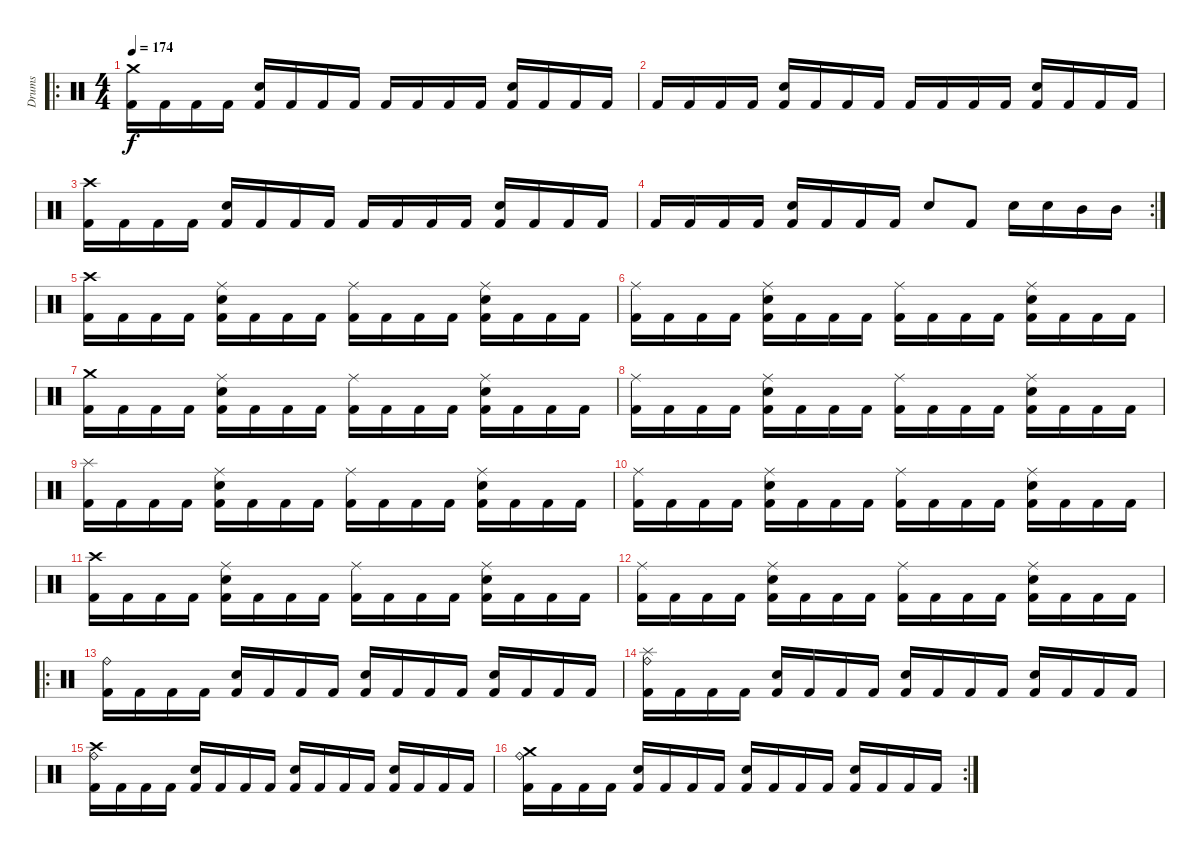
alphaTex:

\track ("Drums" "Drums") {instrument percussion}
\staff {score}
\articulation defaults
\ro
\ts (4 4)
\tempo 174
\clef neutral
\ks c
("Crash medium (hit)" "Kick (hit) 2").16{dy f} "Kick (hit) 2".16 "Kick (hit) 2".16 "Kick (hit) 2".16 ("Electric Snare (hit)" "Kick (hit) 2").16 "Kick (hit) 2".16 "Kick (hit) 2".16 "Kick (hit) 2".16 "Kick (hit) 2".16 "Kick (hit) 2".16 "Kick (hit) 2".16 "Kick (hit) 2".16 ("Electric Snare (hit)" "Kick (hit) 2").16 "Kick (hit) 2".16 "Kick (hit) 2".16 "Kick (hit) 2".16 |
"Kick (hit) 2".16 "Kick (hit) 2".16 "Kick (hit) 2".16 "Kick (hit) 2".16 ("Electric Snare (hit)" "Kick (hit) 2").16 "Kick (hit) 2".16 "Kick (hit) 2".16 "Kick (hit) 2".16 "Kick (hit) 2".16 "Kick (hit) 2".16 "Kick (hit) 2".16 "Kick (hit) 2".16 ("Electric Snare (hit)" "Kick (hit) 2").16 "Kick (hit) 2".16 "Kick (hit) 2".16 "Kick (hit) 2".16 |
("Crash high (hit)" "Kick (hit) 2").16 "Kick (hit) 2".16 "Kick (hit) 2".16 "Kick (hit) 2".16 ("Electric Snare (hit)" "Kick (hit) 2").16 "Kick (hit) 2".16 "Kick (hit) 2".16 "Kick (hit) 2".16 "Kick (hit) 2".16 "Kick (hit) 2".16 "Kick (hit) 2".16 "Kick (hit) 2".16 ("Electric Snare (hit)" "Kick (hit) 2").16 "Kick (hit) 2".16 "Kick (hit) 2".16 "Kick (hit) 2".16 |
\rc 2 "Kick (hit) 2".16 "Kick (hit) 2".16 "Kick (hit) 2".16 "Kick (hit) 2".16
("Electric Snare (hit)" "Kick (hit) 2").16 "Kick (hit) 2".16 "Kick (hit) 2".16 "Kick (hit) 2".16 "Electric Snare (hit)".8 "Kick (hit) 2".8 "Electric Snare (hit)".16 "Electric Snare (hit)".16 "Mid Tom (hit)".16 "Mid Tom (hit)".16 |
("Crash high (hit)" "Kick (hit) 2").16 "Kick (hit) 2".16 "Kick (hit) 2".16 "Kick (hit) 2".16 ("Electric Snare (hit)" "Ride (middle)" "Kick (hit) 2").16 "Kick (hit) 2".16 "Kick (hit) 2".16 "Kick (hit) 2".16 ("Ride (middle)" "Kick (hit) 2").16 "Kick (hit) 2".16 "Kick (hit) 2".16 "Kick (hit) 2".16 ("Electric Snare (hit)" "Ride (middle)" "Kick (hit) 2").16 "Kick (hit) 2".16 "Kick (hit) 2".16 "Kick (hit) 2".16 |
("Ride (middle)" "Kick (hit) 2").16 "Kick (hit) 2".16 "Kick (hit) 2".16 "Kick (hit) 2".16 ("Electric Snare (hit)" "Ride (middle)" "Kick (hit) 2").16 "Kick (hit) 2".16 "Kick (hit) 2".16 "Kick (hit) 2".16 ("Ride (middle)" "Kick (hit) 2").16 "Kick (hit) 2".16 "Kick (hit) 2".16 "Kick (hit) 2".16 ("Electric Snare (hit)" "Ride (middle)" "Kick (hit) 2").16 "Kick (hit) 2".16 "Kick (hit) 2".16 "Kick (hit) 2".16 |
("Crash medium (hit)" "Kick (hit) 2").16 "Kick (hit) 2".16 "Kick (hit) 2".16 "Kick (hit) 2".16 ("Electric Snare (hit)" "Ride (middle)" "Kick (hit) 2").16 "Kick (hit) 2".16 "Kick (hit) 2".16 "Kick (hit) 2".16 ("Ride (middle)" "Kick (hit) 2").16 "Kick (hit) 2".16 "Kick (hit) 2".16 "Kick (hit) 2".16 ("Electric Snare (hit)" "Ride (middle)" "Kick (hit) 2").16 "Kick (hit) 2".16 "Kick (hit) 2".16 "Kick (hit) 2".16 |
("Ride (middle)" "Kick (hit) 2").16 "Kick (hit) 2".16 "Kick (hit) 2".16 "Kick (hit) 2".16 ("Electric Snare (hit)" "Ride (middle)" "Kick (hit) 2").16 "Kick (hit) 2".16 "Kick (hit) 2".16 "Kick (hit) 2".16 ("Ride (middle)" "Kick (hit) 2").16 "Kick (hit) 2".16 "Kick (hit) 2".16 "Kick (hit) 2".16 ("Electric Snare (hit)" "Ride (middle)" "Kick (hit) 2").16 "Kick (hit) 2".16 "Kick (hit) 2".16 "Kick (hit) 2".16 |
("Splash (hit)" "Kick (hit) 2").16 "Kick (hit) 2".16 "Kick (hit) 2".16 "Kick (hit) 2".16 ("Electric Snare (hit)" "Ride (middle)" "Kick (hit) 2").16 "Kick (hit) 2".16 "Kick (hit) 2".16 "Kick (hit) 2".16 ("Ride (middle)" "Kick (hit) 2").16 "Kick (hit) 2".16 "Kick (hit) 2".16 "Kick (hit) 2".16 ("Electric Snare (hit)" "Ride (middle)" "Kick (hit) 2").16 "Kick (hit) 2".16 "Kick (hit) 2".16 "Kick (hit) 2".16 |
("Ride (middle)" "Kick (hit) 2").16 "Kick (hit) 2".16 "Kick (hit) 2".16 "Kick (hit) 2".16 ("Electric Snare (hit)" "Ride (middle)" "Kick (hit) 2").16 "Kick (hit) 2".16 "Kick (hit) 2".16 "Kick (hit) 2".16 ("Ride (middle)" "Kick (hit) 2").16 "Kick (hit) 2".16 "Kick (hit) 2".16 "Kick (hit) 2".16 ("Electric Snare (hit)" "Ride (middle)" "Kick (hit) 2").16 "Kick (hit) 2".16 "Kick (hit) 2".16 "Kick (hit) 2".16 |
("Crash high (hit)" "Kick (hit) 2").16 "Kick (hit) 2".16 "Kick (hit) 2".16 "Kick (hit) 2".16 ("Electric Snare (hit)" "Ride (middle)" "Kick (hit) 2").16 "Kick (hit) 2".16 "Kick (hit) 2".16 "Kick (hit) 2".16 ("Ride (middle)" "Kick (hit) 2").16 "Kick (hit) 2".16 "Kick (hit) 2".16 "Kick (hit) 2".16 ("Electric Snare (hit)" "Ride (middle)" "Kick (hit) 2").16 "Kick (hit) 2".16 "Kick (hit) 2".16 "Kick (hit) 2".16 |
("Ride (middle)" "Kick (hit) 2").16 "Kick (hit) 2".16 "Kick (hit) 2".16 "Kick (hit) 2".16 ("Electric Snare (hit)" "Ride (middle)" "Kick (hit) 2").16 "Kick (hit) 2".16 "Kick (hit) 2".16 "Kick (hit) 2".16 ("Ride (middle)" "Kick (hit) 2").16 "Kick (hit) 2".16 "Kick (hit) 2".16 "Kick (hit) 2".16 ("Electric Snare (hit)" "Ride (middle)" "Kick (hit) 2").16 "Kick (hit) 2".16 "Kick (hit) 2".16 "Kick (hit) 2".16 |
\ro
("Ride (bell)" "Kick (hit) 2").16 "Kick (hit) 2".16 "Kick (hit) 2".16 "Kick (hit) 2".16 ("Electric Snare (hit)" "Kick (hit) 2").16 "Kick (hit) 2".16 "Kick (hit) 2".16 "Kick (hit) 2".16 ("Electric Snare (hit)" "Kick (hit) 2").16 "Kick (hit) 2".16 "Kick (hit) 2".16 "Kick (hit) 2".16 ("Electric Snare (hit)" "Kick (hit) 2").16 "Kick (hit) 2".16 "Kick (hit) 2".16 "Kick (hit) 2".16 |
("Ride (bell)" "Splash (hit)" "Kick (hit) 2").16 "Kick (hit) 2".16 "Kick (hit) 2".16 "Kick (hit) 2".16 ("Electric Snare (hit)" "Kick (hit) 2").16 "Kick (hit) 2".16 "Kick (hit) 2".16 "Kick (hit) 2".16 ("Electric Snare (hit)" "Kick (hit) 2").16 "Kick (hit) 2".16 "Kick (hit) 2".16 "Kick (hit) 2".16 ("Electric Snare (hit)" "Kick (hit) 2").16 "Kick (hit) 2".16 "Kick (hit) 2".16 "Kick (hit) 2".16 |
("Ride (bell)" "Crash high (hit)" "Kick (hit) 2").16 "Kick (hit) 2".16 "Kick (hit) 2".16 "Kick (hit) 2".16 ("Electric Snare (hit)" "Kick (hit) 2").16 "Kick (hit) 2".16 "Kick (hit) 2".16 "Kick (hit) 2".16 ("Electric Snare (hit)" "Kick (hit) 2").16 "Kick (hit) 2".16 "Kick (hit) 2".16 "Kick (hit) 2".16 ("Electric Snare (hit)" "Kick (hit) 2").16 "Kick (hit) 2".16 "Kick (hit) 2".16 "Kick (hit) 2".16 |
\rc 2
("Ride (bell)" "Crash medium (hit)" "Kick (hit) 2").16 "Kick (hit) 2".16 "Kick (hit) 2".16 "Kick (hit) 2".16 ("Electric Snare (hit)" "Kick (hit) 2").16 "Kick (hit) 2".16 "Kick (hit) 2".16 "Kick (hit) 2".16 ("Electric Snare (hit)" "Kick (hit) 2").16 "Kick (hit) 2".16 "Kick (hit) 2".16 "Kick (hit) 2".16 ("Electric Snare (hit)" "Kick (hit) 2").16 "Kick (hit) 2".16 "Kick (hit) 2".16 "Kick (hit) 2".16
